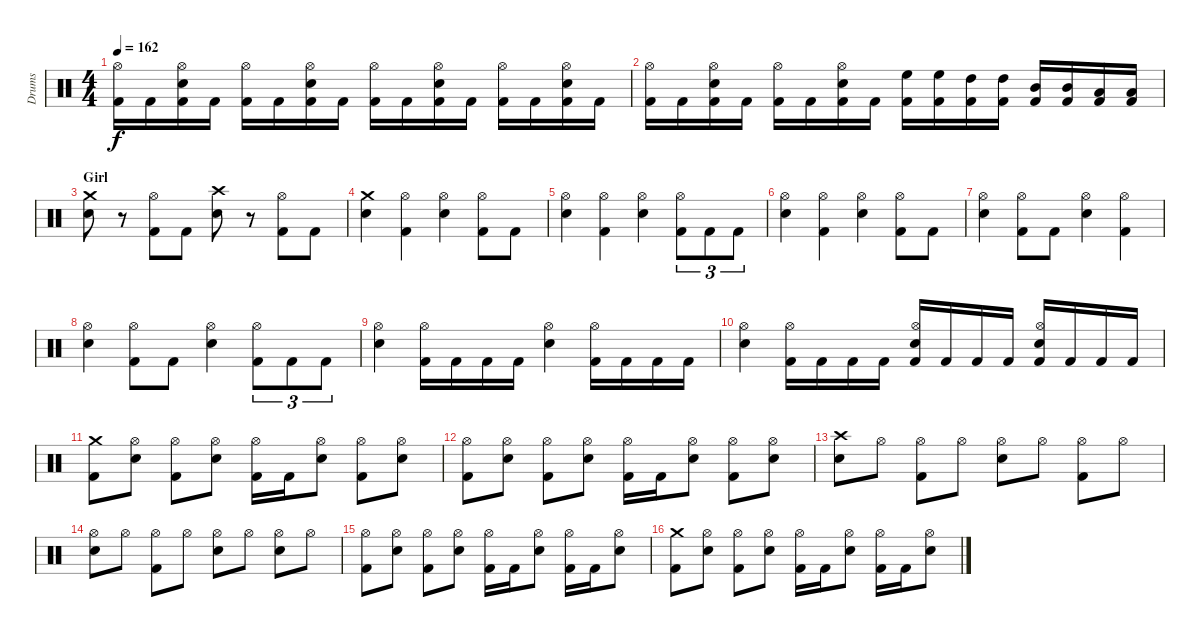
\track ("Drums" "Drums") {instrument percussion}
\staff {score}
\articulation defaults
\ts (4 4)
\tempo 162
\clef neutral
\ks c
("Kick (hit) 2" "Hi-Hat (open)").16{dy f} "Kick (hit) 2".16 ("Kick (hit) 2" "Snare (hit) 2" "Hi-Hat (open)").16 "Kick (hit) 2".16 ("Kick (hit) 2" "Hi-Hat (open)").16 "Kick (hit) 2".16 ("Kick (hit) 2" "Snare (hit) 2" "Hi-Hat (open)").16 "Kick (hit) 2".16 ("Kick (hit) 2" "Hi-Hat (open)").16 "Kick (hit) 2".16 ("Kick (hit) 2" "Snare (hit) 2" "Hi-Hat (open)").16 "Kick (hit) 2".16 ("Kick (hit) 2" "Hi-Hat (open)").16 "Kick (hit) 2".16 ("Kick (hit) 2" "Snare (hit) 2" "Hi-Hat (open)").16 "Kick (hit) 2".16 |
("Kick (hit) 2" "Hi-Hat (open)").16 "Kick (hit) 2".16 ("Kick (hit) 2" "Snare (hit) 2" "Hi-Hat (open)").16 "Kick (hit) 2".16 ("Kick (hit) 2" "Hi-Hat (open)").16 "Kick (hit) 2".16 ("Kick (hit) 2" "Snare (hit) 2" "Hi-Hat (open)").16 "Kick (hit) 2".16 ("Kick (hit) 2" "High Floor Tom (hit)").16 ("Kick (hit) 2" "High Floor Tom (hit)").16 ("Kick (hit) 2" "High Tom (hit)").16 ("Kick (hit) 2" "High Tom (hit)").16 ("Kick (hit) 2" "Mid Tom (hit)").16 ("Kick (hit) 2" "Mid Tom (hit)").16 ("Kick (hit) 2" "Low Tom (hit)").16 ("Kick (hit) 2" "Low Tom (hit)").16 |
\section ("" "Girl")
("Snare (hit) 2" "Crash medium (hit)").8 r.8 ("Kick (hit) 2" "Hi-Hat (open)").8 "Kick (hit) 2".8 ("Snare (hit) 2" "Crash high (hit)").8 r.8 ("Kick (hit) 2" "Hi-Hat (open)").8 "Kick (hit) 2".8 |
("Snare (hit) 2" "Crash medium (hit)").4 ("Kick (hit) 2" "Hi-Hat (open)").4 ("Snare (hit) 2" "Hi-Hat (open)").4 ("Kick (hit) 2" "Hi-Hat (open)").8 "Kick (hit) 2".8 |
("Snare (hit) 2" "Hi-Hat (open)").4 ("Kick (hit) 2" "Hi-Hat (open)").4 ("Snare (hit) 2" "Hi-Hat (open)").4 ("Kick (hit) 2" "Hi-Hat (open)").8{tu (3 2)} "Kick (hit) 2".8{tu (3 2)} "Kick (hit) 2".8{tu (3 2)} |
("Snare (hit) 2" "Hi-Hat (open)").4 ("Kick (hit) 2" "Hi-Hat (open)").4 ("Snare (hit) 2" "Hi-Hat (open)").4 ("Kick (hit) 2" "Hi-Hat (open)").8 "Kick (hit) 2".8 |
("Snare (hit) 2" "Hi-Hat (open)").4 ("Kick (hit) 2" "Hi-Hat (open)").8 "Kick (hit) 2".8 ("Snare (hit) 2" "Hi-Hat (open)").4 ("Kick (hit) 2" "Hi-Hat (open)").4 |
("Snare (hit) 2" "Hi-Hat (open)").4 ("Kick (hit) 2" "Hi-Hat (open)").8 "Kick (hit) 2".8 ("Snare (hit) 2" "Hi-Hat (open)").4 ("Kick (hit) 2" "Hi-Hat (open)").8{tu (3 2)} "Kick (hit) 2".8{tu (3 2)} "Kick (hit) 2".8{tu (3 2)} |
("Snare (hit) 2" "Hi-Hat (open)").4 ("Kick (hit) 2" "Hi-Hat (open)").16 "Kick (hit) 2".16 "Kick (hit) 2".16 "Kick (hit) 2".16 ("Snare (hit) 2" "Hi-Hat (open)").4 ("Kick (hit) 2" "Hi-Hat (open)").16 "Kick (hit) 2".16 "Kick (hit) 2".16 "Kick (hit) 2".16 |
("Snare (hit) 2" "Hi-Hat (open)").4 ("Kick (hit) 2" "Hi-Hat (open)").16 "Kick (hit) 2".16 "Kick (hit) 2".16 "Kick (hit) 2".16 ("Kick (hit) 2" "Snare (hit) 2" "Hi-Hat (open)").16 "Kick (hit) 2".16 "Kick (hit) 2".16 "Kick (hit) 2".16 ("Kick (hit) 2" "Snare (hit) 2" "Hi-Hat (open)").16 "Kick (hit) 2".16 "Kick (hit) 2".16 "Kick (hit) 2".16 |
\section ("" "")
("Kick (hit) 2" "Crash medium (hit)").8 ("Snare (hit) 2" "Hi-Hat (open)").8 ("Kick (hit) 2" "Hi-Hat (open)").8 ("Snare (hit) 2" "Hi-Hat (open)").8 ("Kick (hit) 2" "Hi-Hat (open)").16 "Kick (hit) 2".16 ("Snare (hit) 2" "Hi-Hat (open)").8 ("Kick (hit) 2" "Hi-Hat (open)").8 ("Snare (hit) 2" "Hi-Hat (open)").8 |
("Kick (hit) 2" "Hi-Hat (open)").8 ("Snare (hit) 2" "Hi-Hat (open)").8 ("Kick (hit) 2" "Hi-Hat (open)").8 ("Snare (hit) 2" "Hi-Hat (open)").8 ("Kick (hit) 2" "Hi-Hat (open)").16 "Kick (hit) 2".16 ("Snare (hit) 2" "Hi-Hat (open)").8 ("Kick (hit) 2" "Hi-Hat (open)").8 ("Snare (hit) 2" "Hi-Hat (open)").8 |
("Snare (hit) 2" "Crash high (hit)").8 "Hi-Hat (open)".8 ("Kick (hit) 2" "Hi-Hat (open)").8 "Hi-Hat (open)".8 ("Snare (hit) 2" "Hi-Hat (open)").8 "Hi-Hat (open)".8 ("Kick (hit) 2" "Hi-Hat (open)").8 "Hi-Hat (open)".8 |
("Snare (hit) 2" "Hi-Hat (open)").8 "Hi-Hat (open)".8 ("Kick (hit) 2" "Hi-Hat (open)").8 "Hi-Hat (open)".8 ("Snare (hit) 2" "Hi-Hat (open)").8 "Hi-Hat (open)".8 ("Snare (hit) 2" "Hi-Hat (open)").8 "Hi-Hat (open)".8 |
("Kick (hit) 2" "Hi-Hat (open)").8 ("Snare (hit) 2" "Hi-Hat (open)").8 ("Kick (hit) 2" "Hi-Hat (open)").8 ("Snare (hit) 2" "Hi-Hat (open)").8 ("Kick (hit) 2" "Hi-Hat (open)").16 "Kick (hit) 2".16 ("Snare (hit) 2" "Hi-Hat (open)").8 ("Kick (hit) 2" "Hi-Hat (open)").16 "Kick (hit) 2".16 ("Snare (hit) 2" "Hi-Hat (open)").8 |
("Kick (hit) 2" "Crash medium (hit)").8 ("Snare (hit) 2" "Hi-Hat (open)").8 ("Kick (hit) 2" "Hi-Hat (open)").8 ("Snare (hit) 2" "Hi-Hat (open)").8 ("Kick (hit) 2" "Hi-Hat (open)").16 "Kick (hit) 2".16 ("Snare (hit) 2" "Hi-Hat (open)").8 ("Kick (hit) 2" "Hi-Hat (open)").16 "Kick (hit) 2".16 ("Snare (hit) 2" "Hi-Hat (open)").8
